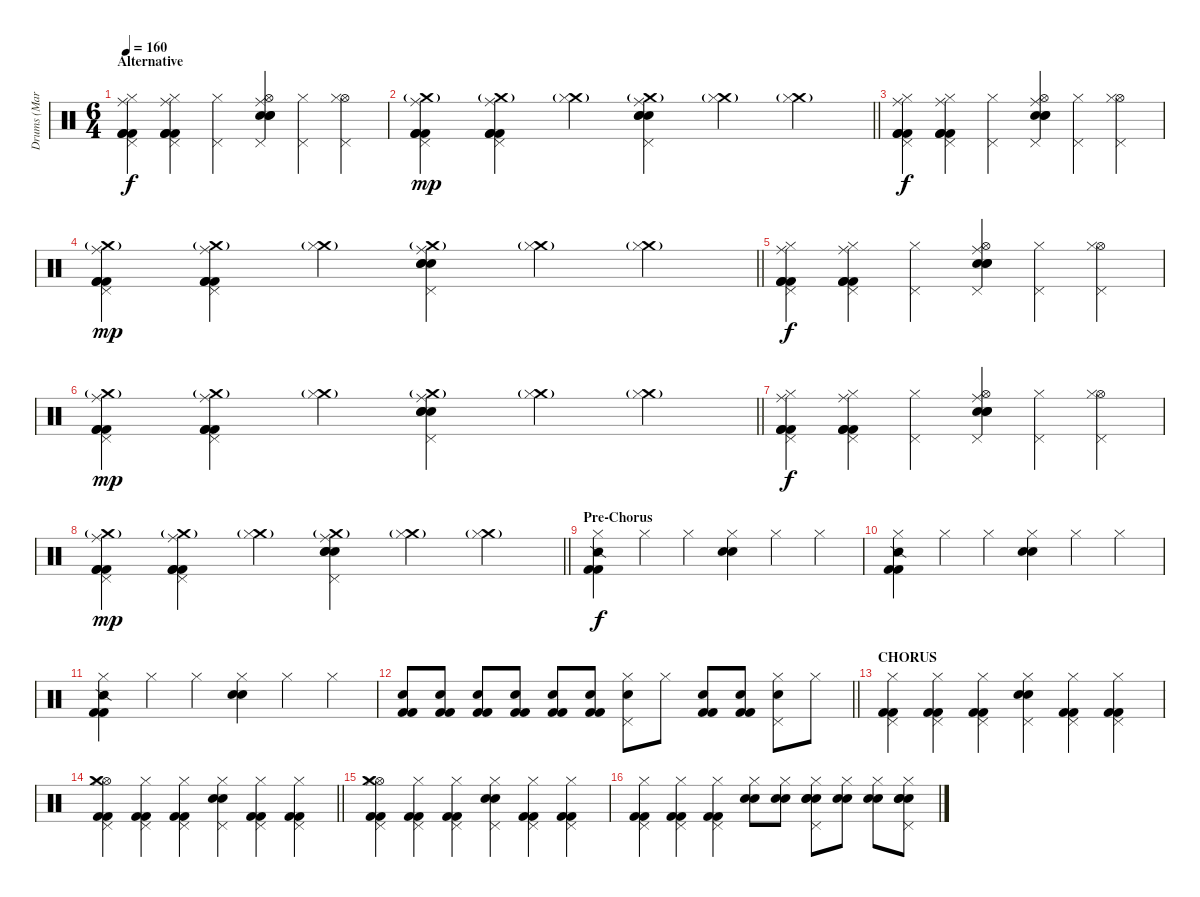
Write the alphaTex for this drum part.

\track ("Drums (Marc Allen)" "Drums (Mar") {instrument percussion}
\staff {score}
\articulation defaults
\ts (6 4)
\section ("" "Alternative")
\tempo 160
\clef neutral
\ks c
("Hi-Hat (closed)" "Pedal Hi-Hat (hit)" "Ride (middle)" "Kick (hit) 2" "Kick (hit) 2" "Kick (hit) 2").4{dy f} ("Hi-Hat (closed)" "Pedal Hi-Hat (hit)" "Ride (middle)" "Kick (hit) 2" "Kick (hit) 2" "Kick (hit) 2").4 ("Hi-Hat (closed)" "Pedal Hi-Hat (hit)").4 ("Hi-Hat (open)" "Pedal Hi-Hat (hit)" "Ride (middle)" "Electric Snare (hit)" "Electric Snare (hit)" "Electric Snare (hit)").4 ("Hi-Hat (closed)" "Pedal Hi-Hat (hit)").4 ("Hi-Hat (open)" "Hi-Hat (closed)" "Pedal Hi-Hat (hit)").4 |
\barLineRight lightlight
("Crash medium (hit)"{g} "Pedal Hi-Hat (hit)" "Ride (middle)" "Kick (hit) 2" "Kick (hit) 2" "Kick (hit) 2").4{dy mp} ("Crash medium (hit)"{g} "Pedal Hi-Hat (hit)" "Ride (middle)" "Kick (hit) 2" "Kick (hit) 2" "Kick (hit) 2").4 ("Crash medium (hit)"{g} "Hi-Hat (closed)").4 ("Crash medium (hit)"{g} "Pedal Hi-Hat (hit)" "Ride (middle)" "Electric Snare (hit)" "Electric Snare (hit)" "Electric Snare (hit)").4 ("Crash medium (hit)"{g} "Hi-Hat (closed)").4 ("Crash medium (hit)"{g} "Hi-Hat (closed)").4 |
("Hi-Hat (closed)" "Pedal Hi-Hat (hit)" "Ride (middle)" "Kick (hit) 2" "Kick (hit) 2" "Kick (hit) 2").4{dy f} ("Hi-Hat (closed)" "Pedal Hi-Hat (hit)" "Ride (middle)" "Kick (hit) 2" "Kick (hit) 2" "Kick (hit) 2").4 ("Hi-Hat (closed)" "Pedal Hi-Hat (hit)").4 ("Hi-Hat (open)" "Pedal Hi-Hat (hit)" "Ride (middle)" "Electric Snare (hit)" "Electric Snare (hit)" "Electric Snare (hit)").4 ("Hi-Hat (closed)" "Pedal Hi-Hat (hit)").4 ("Hi-Hat (open)" "Hi-Hat (closed)" "Pedal Hi-Hat (hit)").4 |
\barLineRight lightlight
("Crash medium (hit)"{g} "Pedal Hi-Hat (hit)" "Ride (middle)" "Kick (hit) 2" "Kick (hit) 2" "Kick (hit) 2").4{dy mp} ("Crash medium (hit)"{g} "Pedal Hi-Hat (hit)" "Ride (middle)" "Kick (hit) 2" "Kick (hit) 2" "Kick (hit) 2").4 ("Crash medium (hit)"{g} "Hi-Hat (closed)").4 ("Crash medium (hit)"{g} "Pedal Hi-Hat (hit)" "Ride (middle)" "Electric Snare (hit)" "Electric Snare (hit)" "Electric Snare (hit)").4 ("Crash medium (hit)"{g} "Hi-Hat (closed)").4 ("Crash medium (hit)"{g} "Hi-Hat (closed)").4 |
("Hi-Hat (closed)" "Pedal Hi-Hat (hit)" "Ride (middle)" "Kick (hit) 2" "Kick (hit) 2" "Kick (hit) 2").4{dy f} ("Hi-Hat (closed)" "Pedal Hi-Hat (hit)" "Ride (middle)" "Kick (hit) 2" "Kick (hit) 2" "Kick (hit) 2").4 ("Hi-Hat (closed)" "Pedal Hi-Hat (hit)").4 ("Hi-Hat (open)" "Pedal Hi-Hat (hit)" "Ride (middle)" "Electric Snare (hit)" "Electric Snare (hit)" "Electric Snare (hit)").4 ("Hi-Hat (closed)" "Pedal Hi-Hat (hit)").4 ("Hi-Hat (open)" "Hi-Hat (closed)" "Pedal Hi-Hat (hit)").4 |
\barLineRight lightlight
("Crash medium (hit)"{g} "Pedal Hi-Hat (hit)" "Ride (middle)" "Kick (hit) 2" "Kick (hit) 2" "Kick (hit) 2").4{dy mp} ("Crash medium (hit)"{g} "Pedal Hi-Hat (hit)" "Ride (middle)" "Kick (hit) 2" "Kick (hit) 2" "Kick (hit) 2").4 ("Crash medium (hit)"{g} "Hi-Hat (closed)").4 ("Crash medium (hit)"{g} "Pedal Hi-Hat (hit)" "Ride (middle)" "Electric Snare (hit)" "Electric Snare (hit)" "Electric Snare (hit)").4 ("Crash medium (hit)"{g} "Hi-Hat (closed)").4 ("Crash medium (hit)"{g} "Hi-Hat (closed)").4 |
("Hi-Hat (closed)" "Pedal Hi-Hat (hit)" "Ride (middle)" "Kick (hit) 2" "Kick (hit) 2" "Kick (hit) 2").4{dy f} ("Hi-Hat (closed)" "Pedal Hi-Hat (hit)" "Ride (middle)" "Kick (hit) 2" "Kick (hit) 2" "Kick (hit) 2").4 ("Hi-Hat (closed)" "Pedal Hi-Hat (hit)").4 ("Hi-Hat (open)" "Pedal Hi-Hat (hit)" "Ride (middle)" "Electric Snare (hit)" "Electric Snare (hit)" "Electric Snare (hit)").4 ("Hi-Hat (closed)" "Pedal Hi-Hat (hit)").4 ("Hi-Hat (open)" "Hi-Hat (closed)" "Pedal Hi-Hat (hit)").4 |
\barLineRight lightlight
("Crash medium (hit)"{g} "Pedal Hi-Hat (hit)" "Ride (middle)" "Kick (hit) 2" "Kick (hit) 2" "Kick (hit) 2").4{dy mp} ("Crash medium (hit)"{g} "Pedal Hi-Hat (hit)" "Ride (middle)" "Kick (hit) 2" "Kick (hit) 2" "Kick (hit) 2").4 ("Crash medium (hit)"{g} "Hi-Hat (closed)").4 ("Crash medium (hit)"{g} "Pedal Hi-Hat (hit)" "Ride (middle)" "Electric Snare (hit)" "Electric Snare (hit)" "Electric Snare (hit)").4 ("Crash medium (hit)"{g} "Hi-Hat (closed)").4 ("Crash medium (hit)"{g} "Hi-Hat (closed)").4 |
\section ("" "Pre-Chorus")
("Hi-Hat (closed)" "Kick (hit) 2" "Kick (hit) 2" "Snare (side stick) 2").4{dy f} "Hi-Hat (closed)".4 "Hi-Hat (closed)".4 ("Hi-Hat (closed)" "Electric Snare (hit)" "Electric Snare (hit)").4 "Hi-Hat (closed)".4 "Hi-Hat (closed)".4 |
("Hi-Hat (closed)" "Kick (hit) 2" "Kick (hit) 2" "Snare (side stick) 2").4 "Hi-Hat (closed)".4 "Hi-Hat (closed)".4 ("Hi-Hat (closed)" "Electric Snare (hit)" "Electric Snare (hit)").4 "Hi-Hat (closed)".4 "Hi-Hat (closed)".4 |
("Hi-Hat (closed)" "Kick (hit) 2" "Kick (hit) 2" "Snare (side stick) 2").4 "Hi-Hat (closed)".4 "Hi-Hat (closed)".4 ("Hi-Hat (closed)" "Electric Snare (hit)" "Electric Snare (hit)").4 "Hi-Hat (closed)".4 "Hi-Hat (closed)".4 |
\barLineRight lightlight
("Kick (hit) 2" "Electric Snare (hit)" "Kick (hit) 2").8 ("Kick (hit) 2" "Electric Snare (hit)" "Kick (hit) 2").8 ("Kick (hit) 2" "Electric Snare (hit)" "Kick (hit) 2").8 ("Kick (hit) 2" "Electric Snare (hit)" "Kick (hit) 2").8 ("Kick (hit) 2" "Electric Snare (hit)" "Kick (hit) 2").8 ("Kick (hit) 2" "Electric Snare (hit)" "Kick (hit) 2").8 ("Pedal Hi-Hat (hit)" "Hi-Hat (closed)" "Electric Snare (hit)").8 "Hi-Hat (closed)".8 ("Kick (hit) 2" "Electric Snare (hit)" "Kick (hit) 2").8 ("Kick (hit) 2" "Electric Snare (hit)" "Kick (hit) 2").8 ("Pedal Hi-Hat (hit)" "Hi-Hat (closed)" "Electric Snare (hit)").8 "Hi-Hat (closed)".8 |
\section ("" "CHORUS")
("Pedal Hi-Hat (hit)" "Hi-Hat (closed)" "Kick (hit) 2" "Kick (hit) 2").4 ("Pedal Hi-Hat (hit)" "Hi-Hat (closed)" "Kick (hit) 2" "Kick (hit) 2").4 ("Pedal Hi-Hat (hit)" "Hi-Hat (closed)" "Kick (hit) 2" "Kick (hit) 2").4 ("Pedal Hi-Hat (hit)" "Hi-Hat (closed)" "Electric Snare (hit)" "Electric Snare (hit)").4 ("Pedal Hi-Hat (hit)" "Hi-Hat (closed)" "Kick (hit) 2" "Kick (hit) 2").4 ("Pedal Hi-Hat (hit)" "Hi-Hat (closed)" "Kick (hit) 2" "Kick (hit) 2").4 |
\barLineRight lightlight
("Pedal Hi-Hat (hit)" "Hi-Hat (open)" "Hi-Hat (closed)" "Crash medium (hit)" "Kick (hit) 2" "Kick (hit) 2").4 ("Pedal Hi-Hat (hit)" "Hi-Hat (closed)" "Kick (hit) 2" "Kick (hit) 2").4 ("Pedal Hi-Hat (hit)" "Hi-Hat (closed)" "Kick (hit) 2" "Kick (hit) 2").4 ("Pedal Hi-Hat (hit)" "Hi-Hat (closed)" "Electric Snare (hit)" "Electric Snare (hit)").4 ("Pedal Hi-Hat (hit)" "Hi-Hat (closed)" "Kick (hit) 2" "Kick (hit) 2").4 ("Pedal Hi-Hat (hit)" "Hi-Hat (closed)" "Kick (hit) 2" "Kick (hit) 2").4 |
("Pedal Hi-Hat (hit)" "Hi-Hat (open)" "Hi-Hat (closed)" "Crash medium (hit)" "Kick (hit) 2" "Kick (hit) 2").4 ("Pedal Hi-Hat (hit)" "Hi-Hat (closed)" "Kick (hit) 2" "Kick (hit) 2").4 ("Pedal Hi-Hat (hit)" "Hi-Hat (closed)" "Kick (hit) 2" "Kick (hit) 2").4 ("Pedal Hi-Hat (hit)" "Hi-Hat (closed)" "Electric Snare (hit)" "Electric Snare (hit)").4 ("Pedal Hi-Hat (hit)" "Hi-Hat (closed)" "Kick (hit) 2" "Kick (hit) 2").4 ("Pedal Hi-Hat (hit)" "Hi-Hat (closed)" "Kick (hit) 2" "Kick (hit) 2").4 |
("Pedal Hi-Hat (hit)" "Hi-Hat (closed)" "Kick (hit) 2" "Kick (hit) 2").4 ("Pedal Hi-Hat (hit)" "Hi-Hat (closed)" "Kick (hit) 2" "Kick (hit) 2").4 ("Pedal Hi-Hat (hit)" "Hi-Hat (closed)" "Kick (hit) 2" "Kick (hit) 2").4 ("Hi-Hat (closed)" "Electric Snare (hit)" "Electric Snare (hit)").8 ("Hi-Hat (closed)" "Electric Snare (hit)" "Electric Snare (hit)").8 ("Hi-Hat (closed)" "Pedal Hi-Hat (hit)" "Electric Snare (hit)" "Electric Snare (hit)" "Snare (hit) 2").8 ("Hi-Hat (closed)" "Electric Snare (hit)" "Electric Snare (hit)").8 ("Hi-Hat (closed)" "Electric Snare (hit)" "Electric Snare (hit)").8 ("Hi-Hat (closed)" "Pedal Hi-Hat (hit)" "Electric Snare (hit)" "Electric Snare (hit)" "Snare (hit) 2").8
